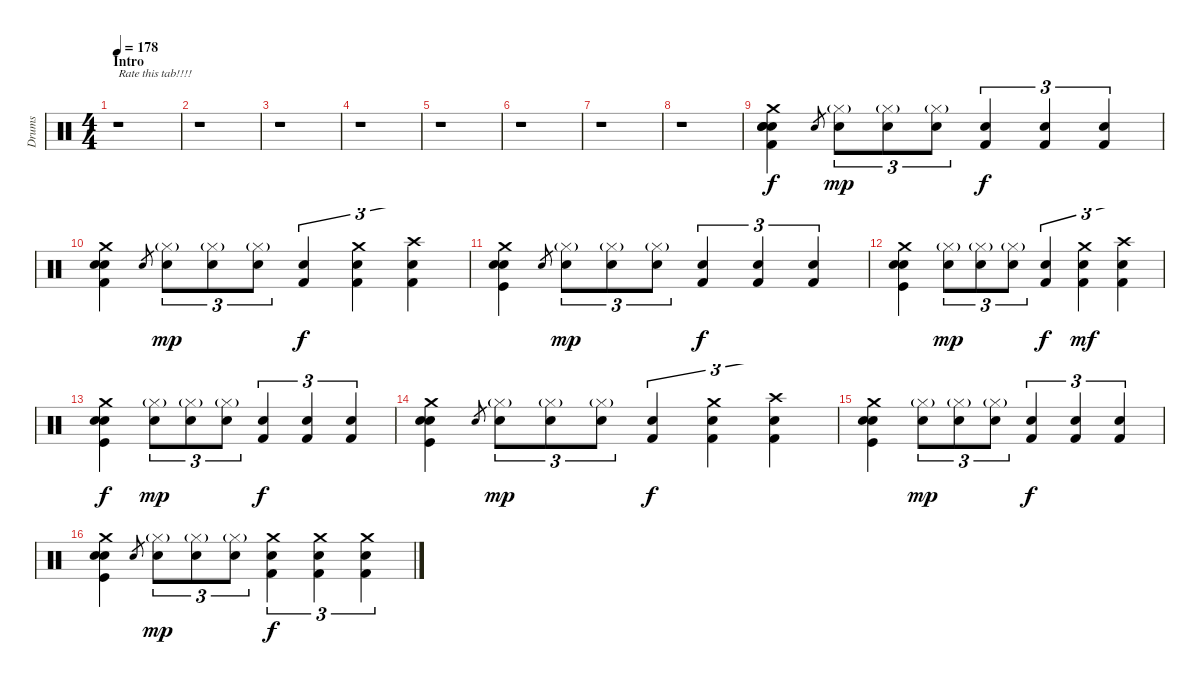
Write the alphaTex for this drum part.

\track ("Drums" "Drums") {instrument percussion}
\staff {score}
\articulation defaults
\ts (4 4)
\section ("" "Intro")
\tempo 178
\tempo 114
\tempo 178
\clef neutral
\ks c
r.1{txt "Rate this tab!!!!" dy f} |
r.1 |
r.1 |
r.1 |
r.1 |
r.1 |
r.1 |
r.1 |
("Crash medium (hit)" "Electric Snare (hit)" "Kick (hit) 2" "Electric Snare (hit)" "Electric Snare (hit)").4 "Electric Snare (hit)".8{gr} ("Electric Snare (hit)" "Hi-Hat (closed)"{g}).8{tu (3 2) dy mp} ("Electric Snare (hit)" "Hi-Hat (closed)"{g}).8{tu (3 2)} ("Electric Snare (hit)" "Hi-Hat (closed)"{g}).8{tu (3 2)} ("Electric Snare (hit)" "Kick (hit) 2").4{tu (3 2) dy f} ("Electric Snare (hit)" "Kick (hit) 2").4{tu (3 2)} ("Electric Snare (hit)" "Kick (hit) 2").4{tu (3 2)} |
("Crash medium (hit)" "Electric Snare (hit)" "Kick (hit) 2" "Electric Snare (hit)").4 "Electric Snare (hit)".8{gr} ("Electric Snare (hit)" "Hi-Hat (closed)"{g}).8{tu (3 2) dy mp} ("Electric Snare (hit)" "Hi-Hat (closed)"{g}).8{tu (3 2)} ("Electric Snare (hit)" "Hi-Hat (closed)"{g}).8{tu (3 2)} ("Electric Snare (hit)" "Kick (hit) 2").4{tu (3 2) dy f} ("Electric Snare (hit)" "Crash medium (hit)" "Kick (hit) 2").4{tu (3 2)} ("Electric Snare (hit)" "Crash high (hit)" "Kick (hit) 2").4{tu (3 2)} |
("Crash medium (hit)" "Electric Snare (hit)" "Kick (hit)" "Electric Snare (hit)").4 "Electric Snare (hit)".8{gr} ("Electric Snare (hit)" "Hi-Hat (closed)"{g}).8{tu (3 2) dy mp} ("Electric Snare (hit)" "Hi-Hat (closed)"{g}).8{tu (3 2)} ("Electric Snare (hit)" "Hi-Hat (closed)"{g}).8{tu (3 2)} ("Electric Snare (hit)" "Kick (hit) 2").4{tu (3 2) dy f} ("Electric Snare (hit)" "Kick (hit) 2").4{tu (3 2)} ("Electric Snare (hit)" "Kick (hit) 2").4{tu (3 2)} |
("Crash medium (hit)" "Electric Snare (hit)" "Kick (hit)" "Electric Snare (hit)").4 ("Electric Snare (hit)" "Hi-Hat (closed)"{g}).8{tu (3 2) dy mp} ("Electric Snare (hit)" "Hi-Hat (closed)"{g}).8{tu (3 2)} ("Electric Snare (hit)" "Hi-Hat (closed)"{g}).8{tu (3 2)} ("Electric Snare (hit)" "Kick (hit) 2").4{tu (3 2) dy f} ("Electric Snare (hit)" "Crash medium (hit)" "Kick (hit) 2").4{tu (3 2) dy mf} ("Electric Snare (hit)" "Crash high (hit)" "Kick (hit) 2").4{tu (3 2)} |
("Crash medium (hit)" "Electric Snare (hit)" "Kick (hit)" "Electric Snare (hit)").4{dy f} ("Electric Snare (hit)" "Hi-Hat (closed)"{g}).8{tu (3 2) dy mp} ("Electric Snare (hit)" "Hi-Hat (closed)"{g}).8{tu (3 2)} ("Electric Snare (hit)" "Hi-Hat (closed)"{g}).8{tu (3 2)} ("Electric Snare (hit)" "Kick (hit) 2").4{tu (3 2) dy f} ("Electric Snare (hit)" "Kick (hit) 2").4{tu (3 2)} ("Electric Snare (hit)" "Kick (hit) 2").4{tu (3 2)} |
("Crash medium (hit)" "Electric Snare (hit)" "Kick (hit)" "Electric Snare (hit)").4 "Electric Snare (hit)".8{gr} ("Electric Snare (hit)" "Hi-Hat (closed)"{g}).8{tu (3 2) dy mp} ("Electric Snare (hit)" "Hi-Hat (closed)"{g}).8{tu (3 2)} ("Electric Snare (hit)" "Hi-Hat (closed)"{g}).8{tu (3 2)} ("Electric Snare (hit)" "Kick (hit) 2").4{tu (3 2) dy f} ("Electric Snare (hit)" "Crash medium (hit)" "Kick (hit) 2").4{tu (3 2)} ("Electric Snare (hit)" "Crash high (hit)" "Kick (hit) 2").4{tu (3 2)} |
("Crash medium (hit)" "Electric Snare (hit)" "Kick (hit)" "Electric Snare (hit)").4 ("Electric Snare (hit)" "Hi-Hat (closed)"{g}).8{tu (3 2) dy mp} ("Electric Snare (hit)" "Hi-Hat (closed)"{g}).8{tu (3 2)} ("Electric Snare (hit)" "Hi-Hat (closed)"{g}).8{tu (3 2)} ("Electric Snare (hit)" "Kick (hit) 2").4{tu (3 2) dy f} ("Electric Snare (hit)" "Kick (hit) 2").4{tu (3 2)} ("Electric Snare (hit)" "Kick (hit) 2").4{tu (3 2)} |
("Crash medium (hit)" "Electric Snare (hit)" "Kick (hit)" "Electric Snare (hit)").4 "Electric Snare (hit)".8{gr} ("Electric Snare (hit)" "Hi-Hat (closed)"{g}).8{tu (3 2) dy mp} ("Electric Snare (hit)" "Hi-Hat (closed)"{g}).8{tu (3 2)} ("Electric Snare (hit)" "Hi-Hat (closed)"{g}).8{tu (3 2)} ("Electric Snare (hit)" "Crash medium (hit)" "Kick (hit) 2").4{tu (3 2) dy f} ("Electric Snare (hit)" "Crash medium (hit)" "Kick (hit) 2").4{tu (3 2)} ("Electric Snare (hit)" "Crash medium (hit)" "Kick (hit) 2").4{tu (3 2)}
